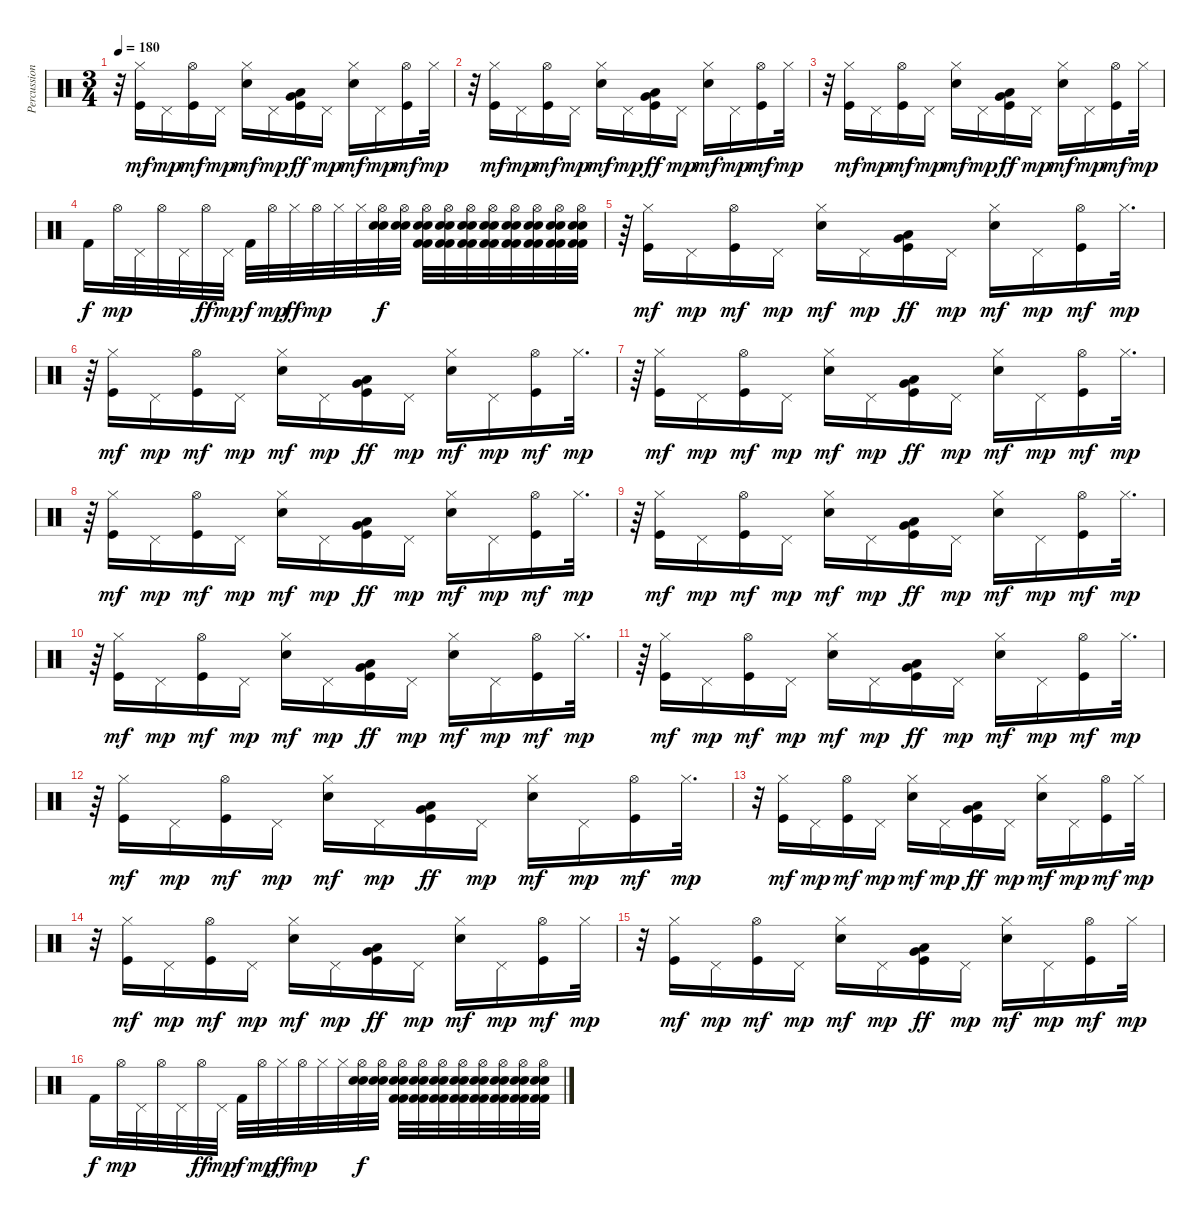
\track ("Percussion" "Percussion") {instrument percussion}
\staff {score}
\articulation defaults
\ts (3 4)
\tempo 180
\clef neutral
\ks c
r.32{dy mp} ("Hi-Hat (closed)" "Kick (hit)").16{dy mf} "Pedal Hi-Hat (hit)".16{dy mp} ("Hi-Hat (open)" "Kick (hit)").16{dy mf} "Pedal Hi-Hat (hit)".16{dy mp} ("Hi-Hat (closed)" "Electric Snare (hit)").16{dy mf} "Pedal Hi-Hat (hit)".16{dy mp} ("Low Tom (hit)" "Very Low Tom (hit)" "Kick (hit)").16{dy ff} "Pedal Hi-Hat (hit)".16{dy mp} ("Hi-Hat (closed)" "Electric Snare (hit)").16{dy mf} "Pedal Hi-Hat (hit)".16{dy mp} ("Hi-Hat (open)" "Kick (hit)").16{dy mf} "Hi-Hat (closed)".32{dy mp} |
r.32 ("Hi-Hat (closed)" "Kick (hit)").16{dy mf} "Pedal Hi-Hat (hit)".16{dy mp} ("Hi-Hat (open)" "Kick (hit)").16{dy mf} "Pedal Hi-Hat (hit)".16{dy mp} ("Hi-Hat (closed)" "Electric Snare (hit)").16{dy mf} "Pedal Hi-Hat (hit)".16{dy mp} ("Low Tom (hit)" "Very Low Tom (hit)" "Kick (hit)").16{dy ff} "Pedal Hi-Hat (hit)".16{dy mp} ("Hi-Hat (closed)" "Electric Snare (hit)").16{dy mf} "Pedal Hi-Hat (hit)".16{dy mp} ("Hi-Hat (open)" "Kick (hit)").16{dy mf} "Hi-Hat (closed)".32{dy mp} |
r.32 ("Hi-Hat (closed)" "Kick (hit)").16{dy mf} "Pedal Hi-Hat (hit)".16{dy mp} ("Hi-Hat (open)" "Kick (hit)").16{dy mf} "Pedal Hi-Hat (hit)".16{dy mp} ("Hi-Hat (closed)" "Snare (hit) 2").16{dy mf} "Pedal Hi-Hat (hit)".16{dy mp} ("Low Tom (hit)" "Very Low Tom (hit)" "Kick (hit)").16{dy ff} "Pedal Hi-Hat (hit)".16{dy mp} ("Hi-Hat (closed)" "Snare (hit) 2").16{dy mf} "Pedal Hi-Hat (hit)".16{dy mp} ("Hi-Hat (open)" "Kick (hit)").16{dy mf} "Hi-Hat (closed)".32{dy mp} |
"Kick (hit) 2".16{dy f} "Hi-Hat (open)".32{dy mp} "Pedal Hi-Hat (hit)".32 "Hi-Hat (open)".32 "Pedal Hi-Hat (hit)".32 "Hi-Hat (open)".32{dy ff} "Pedal Hi-Hat (hit)".32{dy mp} "Kick (hit) 2".32{dy f} "Hi-Hat (open)".32{dy mp} "Hi-Hat (closed)".32{dy ff} "Hi-Hat (open)".32{dy mp} "Hi-Hat (closed)".32 "Hi-Hat (closed)".32 ("Hi-Hat (open)" "Electric Snare (hit)" "Electric Snare (hit)").32{dy f} ("Hi-Hat (open)" "Electric Snare (hit)" "Electric Snare (hit)").32 ("Hi-Hat (open)" "Electric Snare (hit)" "Electric Snare (hit)" "Kick (hit) 2" "Kick (hit) 2").32 ("Hi-Hat (open)" "Electric Snare (hit)" "Electric Snare (hit)" "Kick (hit) 2" "Kick (hit) 2").32 ("Hi-Hat (open)" "Electric Snare (hit)" "Electric Snare (hit)" "Kick (hit) 2" "Kick (hit) 2").32 ("Hi-Hat (open)" "Electric Snare (hit)" "Electric Snare (hit)" "Kick (hit) 2" "Kick (hit) 2").32 ("Hi-Hat (open)" "Electric Snare (hit)" "Electric Snare (hit)" "Kick (hit) 2" "Kick (hit) 2").32 ("Hi-Hat (open)" "Electric Snare (hit)" "Electric Snare (hit)" "Kick (hit) 2" "Kick (hit) 2").32 ("Hi-Hat (open)" "Electric Snare (hit)" "Electric Snare (hit)" "Kick (hit) 2" "Kick (hit) 2").32 ("Hi-Hat (open)" "Electric Snare (hit)" "Electric Snare (hit)" "Kick (hit) 2" "Kick (hit) 2").32 |
r.64 ("Hi-Hat (closed)" "Kick (hit)").16{dy mf} "Pedal Hi-Hat (hit)".16{dy mp} ("Hi-Hat (open)" "Kick (hit)").16{dy mf} "Pedal Hi-Hat (hit)".16{dy mp} ("Hi-Hat (closed)" "Snare (hit) 2").16{dy mf} "Pedal Hi-Hat (hit)".16{dy mp} ("Low Tom (hit)" "Very Low Tom (hit)" "Kick (hit)").16{dy ff} "Pedal Hi-Hat (hit)".16{dy mp} ("Hi-Hat (closed)" "Snare (hit) 2").16{dy mf} "Pedal Hi-Hat (hit)".16{dy mp} ("Hi-Hat (open)" "Kick (hit)").16{dy mf} "Hi-Hat (closed)".32{d dy mp} |
r.64 ("Hi-Hat (closed)" "Kick (hit)").16{dy mf} "Pedal Hi-Hat (hit)".16{dy mp} ("Hi-Hat (open)" "Kick (hit)").16{dy mf} "Pedal Hi-Hat (hit)".16{dy mp} ("Hi-Hat (closed)" "Snare (hit) 2").16{dy mf} "Pedal Hi-Hat (hit)".16{dy mp} ("Low Tom (hit)" "Very Low Tom (hit)" "Kick (hit)").16{dy ff} "Pedal Hi-Hat (hit)".16{dy mp} ("Hi-Hat (closed)" "Snare (hit) 2").16{dy mf} "Pedal Hi-Hat (hit)".16{dy mp} ("Hi-Hat (open)" "Kick (hit)").16{dy mf} "Hi-Hat (closed)".32{d dy mp} |
r.64 ("Hi-Hat (closed)" "Kick (hit)").16{dy mf} "Pedal Hi-Hat (hit)".16{dy mp} ("Hi-Hat (open)" "Kick (hit)").16{dy mf} "Pedal Hi-Hat (hit)".16{dy mp} ("Hi-Hat (closed)" "Snare (hit) 2").16{dy mf} "Pedal Hi-Hat (hit)".16{dy mp} ("Low Tom (hit)" "Very Low Tom (hit)" "Kick (hit)").16{dy ff} "Pedal Hi-Hat (hit)".16{dy mp} ("Hi-Hat (closed)" "Snare (hit) 2").16{dy mf} "Pedal Hi-Hat (hit)".16{dy mp} ("Hi-Hat (open)" "Kick (hit)").16{dy mf} "Hi-Hat (closed)".32{d dy mp} |
r.64 ("Hi-Hat (closed)" "Kick (hit)").16{dy mf} "Pedal Hi-Hat (hit)".16{dy mp} ("Hi-Hat (open)" "Kick (hit)").16{dy mf} "Pedal Hi-Hat (hit)".16{dy mp} ("Hi-Hat (closed)" "Snare (hit) 2").16{dy mf} "Pedal Hi-Hat (hit)".16{dy mp} ("Low Tom (hit)" "Very Low Tom (hit)" "Kick (hit)").16{dy ff} "Pedal Hi-Hat (hit)".16{dy mp} ("Hi-Hat (closed)" "Snare (hit) 2").16{dy mf} "Pedal Hi-Hat (hit)".16{dy mp} ("Hi-Hat (open)" "Kick (hit)").16{dy mf} "Hi-Hat (closed)".32{d dy mp} |
r.64 ("Hi-Hat (closed)" "Kick (hit)").16{dy mf} "Pedal Hi-Hat (hit)".16{dy mp} ("Hi-Hat (open)" "Kick (hit)").16{dy mf} "Pedal Hi-Hat (hit)".16{dy mp} ("Hi-Hat (closed)" "Snare (hit) 2").16{dy mf} "Pedal Hi-Hat (hit)".16{dy mp} ("Low Tom (hit)" "Very Low Tom (hit)" "Kick (hit)").16{dy ff} "Pedal Hi-Hat (hit)".16{dy mp} ("Hi-Hat (closed)" "Snare (hit) 2").16{dy mf} "Pedal Hi-Hat (hit)".16{dy mp} ("Hi-Hat (open)" "Kick (hit)").16{dy mf} "Hi-Hat (closed)".32{d dy mp} |
r.64 ("Hi-Hat (closed)" "Kick (hit)").16{dy mf} "Pedal Hi-Hat (hit)".16{dy mp} ("Hi-Hat (open)" "Kick (hit)").16{dy mf} "Pedal Hi-Hat (hit)".16{dy mp} ("Hi-Hat (closed)" "Snare (hit) 2").16{dy mf} "Pedal Hi-Hat (hit)".16{dy mp} ("Low Tom (hit)" "Very Low Tom (hit)" "Kick (hit)").16{dy ff} "Pedal Hi-Hat (hit)".16{dy mp} ("Hi-Hat (closed)" "Snare (hit) 2").16{dy mf} "Pedal Hi-Hat (hit)".16{dy mp} ("Hi-Hat (open)" "Kick (hit)").16{dy mf} "Hi-Hat (closed)".32{d dy mp} |
r.64 ("Hi-Hat (closed)" "Kick (hit)").16{dy mf} "Pedal Hi-Hat (hit)".16{dy mp} ("Hi-Hat (open)" "Kick (hit)").16{dy mf} "Pedal Hi-Hat (hit)".16{dy mp} ("Hi-Hat (closed)" "Snare (hit) 2").16{dy mf} "Pedal Hi-Hat (hit)".16{dy mp} ("Low Tom (hit)" "Very Low Tom (hit)" "Kick (hit)").16{dy ff} "Pedal Hi-Hat (hit)".16{dy mp} ("Hi-Hat (closed)" "Snare (hit) 2").16{dy mf} "Pedal Hi-Hat (hit)".16{dy mp} ("Hi-Hat (open)" "Kick (hit)").16{dy mf} "Hi-Hat (closed)".32{d dy mp} |
r.64 ("Hi-Hat (closed)" "Kick (hit)").16{dy mf} "Pedal Hi-Hat (hit)".16{dy mp} ("Hi-Hat (open)" "Kick (hit)").16{dy mf} "Pedal Hi-Hat (hit)".16{dy mp} ("Hi-Hat (closed)" "Snare (hit) 2").16{dy mf} "Pedal Hi-Hat (hit)".16{dy mp} ("Low Tom (hit)" "Very Low Tom (hit)" "Kick (hit)").16{dy ff} "Pedal Hi-Hat (hit)".16{dy mp} ("Hi-Hat (closed)" "Snare (hit) 2").16{dy mf} "Pedal Hi-Hat (hit)".16{dy mp} ("Hi-Hat (open)" "Kick (hit)").16{dy mf} "Hi-Hat (closed)".32{d dy mp} |
r.32 ("Hi-Hat (closed)" "Kick (hit)").16{dy mf} "Pedal Hi-Hat (hit)".16{dy mp} ("Hi-Hat (open)" "Kick (hit)").16{dy mf} "Pedal Hi-Hat (hit)".16{dy mp} ("Hi-Hat (closed)" "Electric Snare (hit)").16{dy mf} "Pedal Hi-Hat (hit)".16{dy mp} ("Low Tom (hit)" "Very Low Tom (hit)" "Kick (hit)").16{dy ff} "Pedal Hi-Hat (hit)".16{dy mp} ("Hi-Hat (closed)" "Electric Snare (hit)").16{dy mf} "Pedal Hi-Hat (hit)".16{dy mp} ("Hi-Hat (open)" "Kick (hit)").16{dy mf} "Hi-Hat (closed)".32{dy mp} |
r.32 ("Hi-Hat (closed)" "Kick (hit)").16{dy mf} "Pedal Hi-Hat (hit)".16{dy mp} ("Hi-Hat (open)" "Kick (hit)").16{dy mf} "Pedal Hi-Hat (hit)".16{dy mp} ("Hi-Hat (closed)" "Electric Snare (hit)").16{dy mf} "Pedal Hi-Hat (hit)".16{dy mp} ("Low Tom (hit)" "Very Low Tom (hit)" "Kick (hit)").16{dy ff} "Pedal Hi-Hat (hit)".16{dy mp} ("Hi-Hat (closed)" "Electric Snare (hit)").16{dy mf} "Pedal Hi-Hat (hit)".16{dy mp} ("Hi-Hat (open)" "Kick (hit)").16{dy mf} "Hi-Hat (closed)".32{dy mp} |
r.32 ("Hi-Hat (closed)" "Kick (hit)").16{dy mf} "Pedal Hi-Hat (hit)".16{dy mp} ("Hi-Hat (open)" "Kick (hit)").16{dy mf} "Pedal Hi-Hat (hit)".16{dy mp} ("Hi-Hat (closed)" "Snare (hit) 2").16{dy mf} "Pedal Hi-Hat (hit)".16{dy mp} ("Low Tom (hit)" "Very Low Tom (hit)" "Kick (hit)").16{dy ff} "Pedal Hi-Hat (hit)".16{dy mp} ("Hi-Hat (closed)" "Snare (hit) 2").16{dy mf} "Pedal Hi-Hat (hit)".16{dy mp} ("Hi-Hat (open)" "Kick (hit)").16{dy mf} "Hi-Hat (closed)".32{dy mp} |
"Kick (hit) 2".16{dy f} "Hi-Hat (open)".32{dy mp} "Pedal Hi-Hat (hit)".32 "Hi-Hat (open)".32 "Pedal Hi-Hat (hit)".32 "Hi-Hat (open)".32{dy ff} "Pedal Hi-Hat (hit)".32{dy mp} "Kick (hit) 2".32{dy f} "Hi-Hat (open)".32{dy mp} "Hi-Hat (closed)".32{dy ff} "Hi-Hat (open)".32{dy mp} "Hi-Hat (closed)".32 "Hi-Hat (closed)".32 ("Hi-Hat (open)" "Electric Snare (hit)" "Electric Snare (hit)").32{dy f} ("Hi-Hat (open)" "Electric Snare (hit)" "Electric Snare (hit)").32 ("Hi-Hat (open)" "Electric Snare (hit)" "Electric Snare (hit)" "Kick (hit) 2" "Kick (hit) 2").32 ("Hi-Hat (open)" "Electric Snare (hit)" "Electric Snare (hit)" "Kick (hit) 2" "Kick (hit) 2").32 ("Hi-Hat (open)" "Electric Snare (hit)" "Electric Snare (hit)" "Kick (hit) 2" "Kick (hit) 2").32 ("Hi-Hat (open)" "Electric Snare (hit)" "Electric Snare (hit)" "Kick (hit) 2" "Kick (hit) 2").32 ("Hi-Hat (open)" "Electric Snare (hit)" "Electric Snare (hit)" "Kick (hit) 2" "Kick (hit) 2").32 ("Hi-Hat (open)" "Electric Snare (hit)" "Electric Snare (hit)" "Kick (hit) 2" "Kick (hit) 2").32 ("Hi-Hat (open)" "Electric Snare (hit)" "Electric Snare (hit)" "Kick (hit) 2" "Kick (hit) 2").32 ("Hi-Hat (open)" "Electric Snare (hit)" "Electric Snare (hit)" "Kick (hit) 2" "Kick (hit) 2").32
